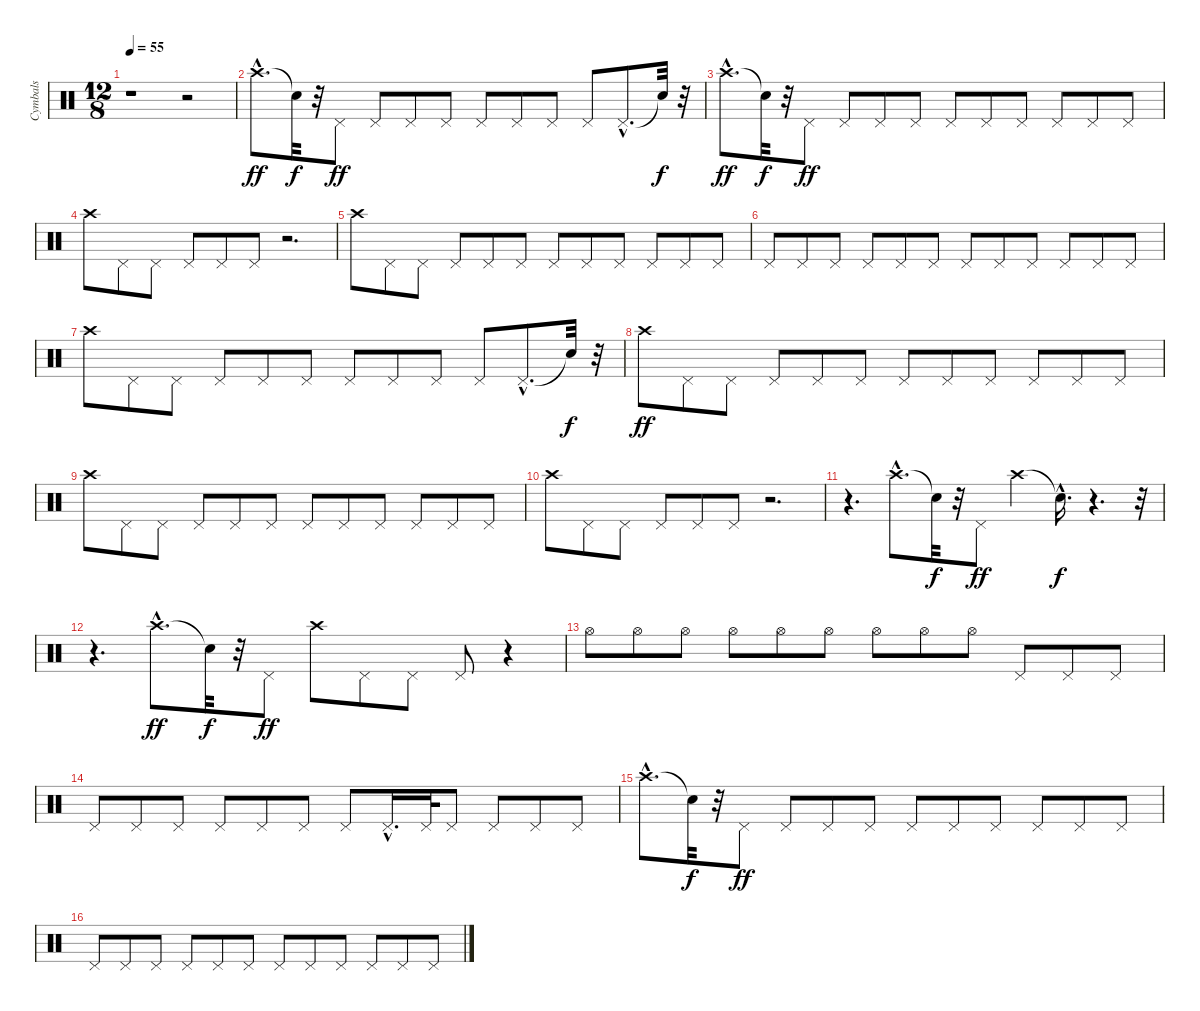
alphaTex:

\track ("Cymbals" "Cymbals") {instrument percussion}
\staff {score}
\articulation defaults
\ts (12 8)
\tempo 55
\clef neutral
\ks c
r.1{dy ff} r.2 |
"Crash high (hit)"{hac}.8{d} "Snare (hit)"{t}.32{dy f} r.32 "Pedal Hi-Hat (hit)".8{dy ff} "Pedal Hi-Hat (hit)".8 "Pedal Hi-Hat (hit)".8 "Pedal Hi-Hat (hit)".8 "Pedal Hi-Hat (hit)".8 "Pedal Hi-Hat (hit)".8 "Pedal Hi-Hat (hit)".8 "Pedal Hi-Hat (hit)".8 "Pedal Hi-Hat (hit)"{hac}.8{d} "Snare (hit)"{t}.32{dy f} r.32 |
"Crash high (hit)"{hac}.8{d dy ff} "Snare (hit)"{t}.32{dy f} r.32 "Pedal Hi-Hat (hit)".8{dy ff} "Pedal Hi-Hat (hit)".8 "Pedal Hi-Hat (hit)".8 "Pedal Hi-Hat (hit)".8 "Pedal Hi-Hat (hit)".8 "Pedal Hi-Hat (hit)".8 "Pedal Hi-Hat (hit)".8 "Pedal Hi-Hat (hit)".8 "Pedal Hi-Hat (hit)".8 "Pedal Hi-Hat (hit)".8 |
"Crash high (hit)".8 "Pedal Hi-Hat (hit)".8 "Pedal Hi-Hat (hit)".8 "Pedal Hi-Hat (hit)".8 "Pedal Hi-Hat (hit)".8 "Pedal Hi-Hat (hit)".8 r.2{d} |
"Crash high (hit)".8 "Pedal Hi-Hat (hit)".8 "Pedal Hi-Hat (hit)".8 "Pedal Hi-Hat (hit)".8 "Pedal Hi-Hat (hit)".8 "Pedal Hi-Hat (hit)".8 "Pedal Hi-Hat (hit)".8 "Pedal Hi-Hat (hit)".8 "Pedal Hi-Hat (hit)".8 "Pedal Hi-Hat (hit)".8 "Pedal Hi-Hat (hit)".8 "Pedal Hi-Hat (hit)".8 |
"Pedal Hi-Hat (hit)".8 "Pedal Hi-Hat (hit)".8 "Pedal Hi-Hat (hit)".8 "Pedal Hi-Hat (hit)".8 "Pedal Hi-Hat (hit)".8 "Pedal Hi-Hat (hit)".8 "Pedal Hi-Hat (hit)".8 "Pedal Hi-Hat (hit)".8 "Pedal Hi-Hat (hit)".8 "Pedal Hi-Hat (hit)".8 "Pedal Hi-Hat (hit)".8 "Pedal Hi-Hat (hit)".8 |
"Crash high (hit)".8 "Pedal Hi-Hat (hit)".8 "Pedal Hi-Hat (hit)".8 "Pedal Hi-Hat (hit)".8 "Pedal Hi-Hat (hit)".8 "Pedal Hi-Hat (hit)".8 "Pedal Hi-Hat (hit)".8 "Pedal Hi-Hat (hit)".8 "Pedal Hi-Hat (hit)".8 "Pedal Hi-Hat (hit)".8 "Pedal Hi-Hat (hit)"{hac}.8{d} "Snare (hit)"{t}.32{dy f} r.32 |
"Crash high (hit)".8{dy ff} "Pedal Hi-Hat (hit)".8 "Pedal Hi-Hat (hit)".8 "Pedal Hi-Hat (hit)".8 "Pedal Hi-Hat (hit)".8 "Pedal Hi-Hat (hit)".8 "Pedal Hi-Hat (hit)".8 "Pedal Hi-Hat (hit)".8 "Pedal Hi-Hat (hit)".8 "Pedal Hi-Hat (hit)".8 "Pedal Hi-Hat (hit)".8 "Pedal Hi-Hat (hit)".8 |
"Crash high (hit)".8 "Pedal Hi-Hat (hit)".8 "Pedal Hi-Hat (hit)".8 "Pedal Hi-Hat (hit)".8 "Pedal Hi-Hat (hit)".8 "Pedal Hi-Hat (hit)".8 "Pedal Hi-Hat (hit)".8 "Pedal Hi-Hat (hit)".8 "Pedal Hi-Hat (hit)".8 "Pedal Hi-Hat (hit)".8 "Pedal Hi-Hat (hit)".8 "Pedal Hi-Hat (hit)".8 |
"Crash high (hit)".8 "Pedal Hi-Hat (hit)".8 "Pedal Hi-Hat (hit)".8 "Pedal Hi-Hat (hit)".8 "Pedal Hi-Hat (hit)".8 "Pedal Hi-Hat (hit)".8 r.2{d} |
r.4{d} "Crash high (hit)"{hac}.8{d} "Snare (hit)"{t}.32{dy f} r.32 "Pedal Hi-Hat (hit)".8{dy ff} "Crash high (hit)".4 "Snare (hit)"{hac t}.16{d dy f} r.4{d} r.32 |
r.4{d} "Crash high (hit)"{hac}.8{d dy ff} "Snare (hit)"{t}.32{dy f} r.32 "Pedal Hi-Hat (hit)".8{dy ff} "Crash high (hit)".8 "Pedal Hi-Hat (hit)".8 "Pedal Hi-Hat (hit)".8 "Pedal Hi-Hat (hit)".8 r.4 |
"Hi-Hat (open)".8 "Hi-Hat (open)".8 "Hi-Hat (open)".8 "Hi-Hat (open)".8 "Hi-Hat (open)".8 "Hi-Hat (open)".8 "Hi-Hat (open)".8 "Hi-Hat (open)".8 "Hi-Hat (open)".8 "Pedal Hi-Hat (hit)".8 "Pedal Hi-Hat (hit)".8 "Pedal Hi-Hat (hit)".8 |
"Pedal Hi-Hat (hit)".8 "Pedal Hi-Hat (hit)".8 "Pedal Hi-Hat (hit)".8 "Pedal Hi-Hat (hit)".8 "Pedal Hi-Hat (hit)".8 "Pedal Hi-Hat (hit)".8 "Pedal Hi-Hat (hit)".8 "Pedal Hi-Hat (hit)"{hac}.16{d} "Pedal Hi-Hat (hit)".32 "Pedal Hi-Hat (hit)".8 "Pedal Hi-Hat (hit)".8 "Pedal Hi-Hat (hit)".8 "Pedal Hi-Hat (hit)".8 |
"Crash high (hit)"{hac}.8{d} "Snare (hit)"{t}.32{dy f} r.32 "Pedal Hi-Hat (hit)".8{dy ff} "Pedal Hi-Hat (hit)".8 "Pedal Hi-Hat (hit)".8 "Pedal Hi-Hat (hit)".8 "Pedal Hi-Hat (hit)".8 "Pedal Hi-Hat (hit)".8 "Pedal Hi-Hat (hit)".8 "Pedal Hi-Hat (hit)".8 "Pedal Hi-Hat (hit)".8 "Pedal Hi-Hat (hit)".8 |
"Pedal Hi-Hat (hit)".8 "Pedal Hi-Hat (hit)".8 "Pedal Hi-Hat (hit)".8 "Pedal Hi-Hat (hit)".8 "Pedal Hi-Hat (hit)".8 "Pedal Hi-Hat (hit)".8 "Pedal Hi-Hat (hit)".8 "Pedal Hi-Hat (hit)".8 "Pedal Hi-Hat (hit)".8 "Pedal Hi-Hat (hit)".8 "Pedal Hi-Hat (hit)".8 "Pedal Hi-Hat (hit)".8
